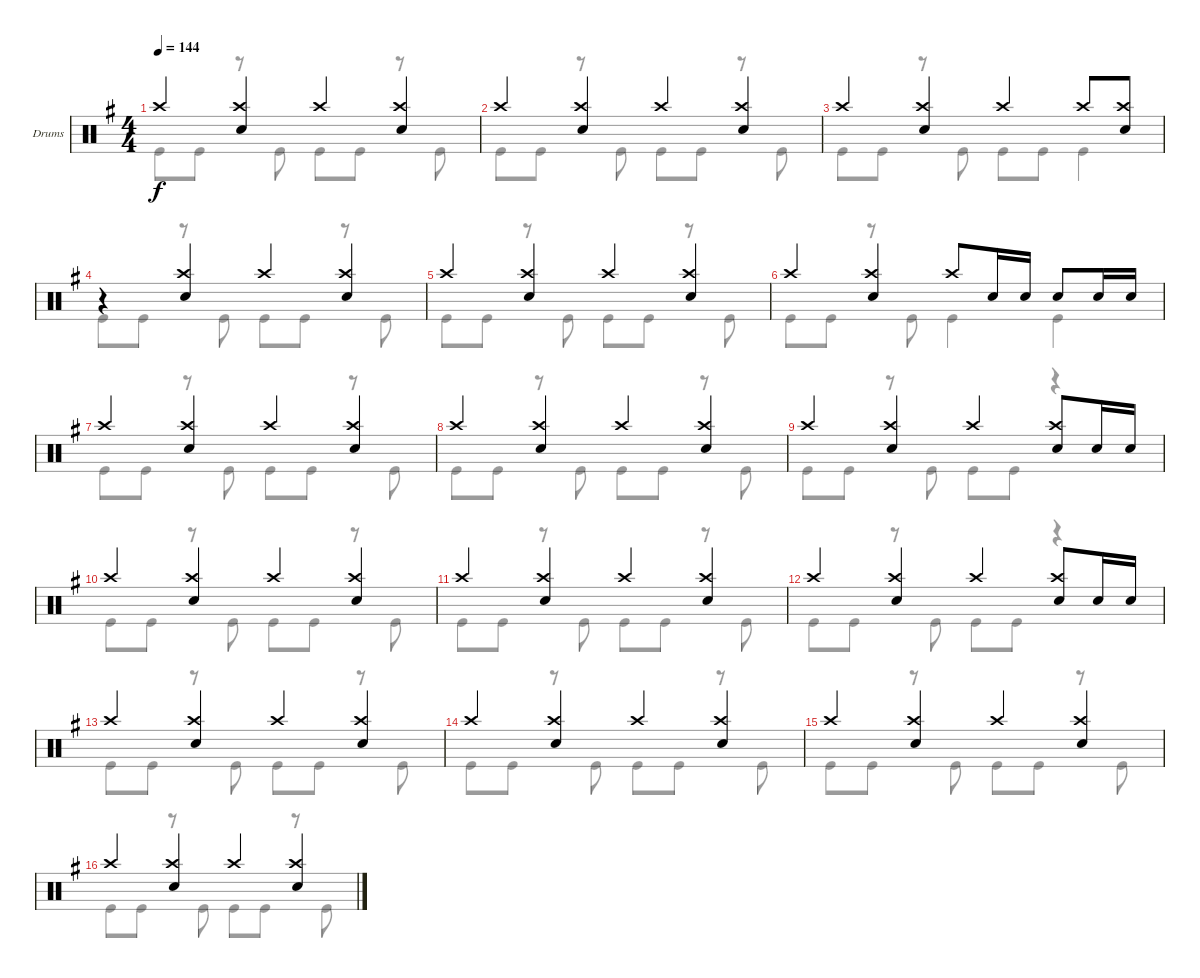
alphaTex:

\bracketExtendMode groupsimilarinstruments
\firstSystemTrackNameOrientation horizontal
\otherSystemsTrackNameOrientation horizontal
\track ("Drumkit" "Drums") {instrument percussion}
\staff {score}
\articulation defaults
\voice
\ts (4 4)
\tempo 144
\clef neutral
\ks g "Crash high (hit)".4{dy f}
("Crash high (hit)" "Snare (hit) 2").4 "Crash high (hit)".4 ("Crash high (hit)" "Snare (hit) 2").4 |
"Crash high (hit)".4 ("Crash high (hit)" "Snare (hit) 2").4 "Crash high (hit)".4 ("Crash high (hit)" "Snare (hit) 2").4 |
"Crash high (hit)".4 ("Crash high (hit)" "Snare (hit) 2").4 "Crash high (hit)".4 "Crash high (hit)".8 ("Snare (hit) 2" "Crash high (hit)").8 |
r.4 ("Crash high (hit)" "Snare (hit) 2").4 "Crash high (hit)".4 ("Crash high (hit)" "Snare (hit) 2").4 |
"Crash high (hit)".4 ("Crash high (hit)" "Snare (hit) 2").4 "Crash high (hit)".4 ("Crash high (hit)" "Snare (hit) 2").4 |
"Crash high (hit)".4 ("Crash high (hit)" "Snare (hit) 2").4 "Crash high (hit)".8 "Snare (hit) 2".16 "Snare (hit) 2".16 "Snare (hit) 2".8 "Snare (hit) 2".16 "Snare (hit) 2".16 |
"Crash high (hit)".4 ("Crash high (hit)" "Snare (hit) 2").4 "Crash high (hit)".4 ("Crash high (hit)" "Snare (hit) 2").4 |
"Crash high (hit)".4 ("Crash high (hit)" "Snare (hit) 2").4 "Crash high (hit)".4 ("Crash high (hit)" "Snare (hit) 2").4 |
"Crash high (hit)".4 ("Crash high (hit)" "Snare (hit) 2").4 "Crash high (hit)".4 ("Crash high (hit)" "Snare (hit) 2").8 "Snare (hit) 2".16 "Snare (hit) 2".16 |
"Crash high (hit)".4 ("Crash high (hit)" "Snare (hit) 2").4 "Crash high (hit)".4 ("Crash high (hit)" "Snare (hit) 2").4 |
"Crash high (hit)".4 ("Crash high (hit)" "Snare (hit) 2").4 "Crash high (hit)".4 ("Crash high (hit)" "Snare (hit) 2").4 |
"Crash high (hit)".4 ("Crash high (hit)" "Snare (hit) 2").4 "Crash high (hit)".4 ("Crash high (hit)" "Snare (hit) 2").8 "Snare (hit) 2".16 "Snare (hit) 2".16 |
"Crash high (hit)".4 ("Crash high (hit)" "Snare (hit) 2").4 "Crash high (hit)".4 ("Crash high (hit)" "Snare (hit) 2").4 |
"Crash high (hit)".4 ("Crash high (hit)" "Snare (hit) 2").4 "Crash high (hit)".4 ("Crash high (hit)" "Snare (hit) 2").4 |
"Crash high (hit)".4 ("Crash high (hit)" "Snare (hit) 2").4 "Crash high (hit)".4 ("Crash high (hit)" "Snare (hit) 2").4 |
"Crash high (hit)".4 ("Crash high (hit)" "Snare (hit) 2").4 "Crash high (hit)".4 ("Crash high (hit)" "Snare (hit) 2").4
\voice
\clef neutral
\ottava regular
\simile none
\ks g "Kick (hit)".8{dy f} "Kick (hit)".8
r.8 "Kick (hit)".8 "Kick (hit)".8 "Kick (hit)".8 r.8 "Kick (hit)".8 |
"Kick (hit)".8 "Kick (hit)".8 r.8 "Kick (hit)".8 "Kick (hit)".8 "Kick (hit)".8 r.8 "Kick (hit)".8 |
"Kick (hit)".8 "Kick (hit)".8 r.8 "Kick (hit)".8 "Kick (hit)".8 "Kick (hit)".8 "Kick (hit)".4 |
"Kick (hit)".8 "Kick (hit)".8 r.8 "Kick (hit)".8 "Kick (hit)".8 "Kick (hit)".8 r.8 "Kick (hit)".8 |
"Kick (hit)".8 "Kick (hit)".8 r.8 "Kick (hit)".8 "Kick (hit)".8 "Kick (hit)".8 r.8 "Kick (hit)".8 |
"Kick (hit)".8 "Kick (hit)".8 r.8 "Kick (hit)".8 "Kick (hit)".4 "Kick (hit)".4 |
"Kick (hit)".8 "Kick (hit)".8 r.8 "Kick (hit)".8 "Kick (hit)".8 "Kick (hit)".8 r.8 "Kick (hit)".8 |
"Kick (hit)".8 "Kick (hit)".8 r.8 "Kick (hit)".8 "Kick (hit)".8 "Kick (hit)".8 r.8 "Kick (hit)".8 |
"Kick (hit)".8 "Kick (hit)".8 r.8 "Kick (hit)".8 "Kick (hit)".8 "Kick (hit)".8 r.4 |
"Kick (hit)".8 "Kick (hit)".8 r.8 "Kick (hit)".8 "Kick (hit)".8 "Kick (hit)".8 r.8 "Kick (hit)".8 |
"Kick (hit)".8 "Kick (hit)".8 r.8 "Kick (hit)".8 "Kick (hit)".8 "Kick (hit)".8 r.8 "Kick (hit)".8 |
"Kick (hit)".8 "Kick (hit)".8 r.8 "Kick (hit)".8 "Kick (hit)".8 "Kick (hit)".8 r.4 |
"Kick (hit)".8 "Kick (hit)".8 r.8 "Kick (hit)".8 "Kick (hit)".8 "Kick (hit)".8 r.8 "Kick (hit)".8 |
"Kick (hit)".8 "Kick (hit)".8 r.8 "Kick (hit)".8 "Kick (hit)".8 "Kick (hit)".8 r.8 "Kick (hit)".8 |
"Kick (hit)".8 "Kick (hit)".8 r.8 "Kick (hit)".8 "Kick (hit)".8 "Kick (hit)".8 r.8 "Kick (hit)".8 |
"Kick (hit)".8 "Kick (hit)".8 r.8 "Kick (hit)".8 "Kick (hit)".8 "Kick (hit)".8 r.8 "Kick (hit)".8
